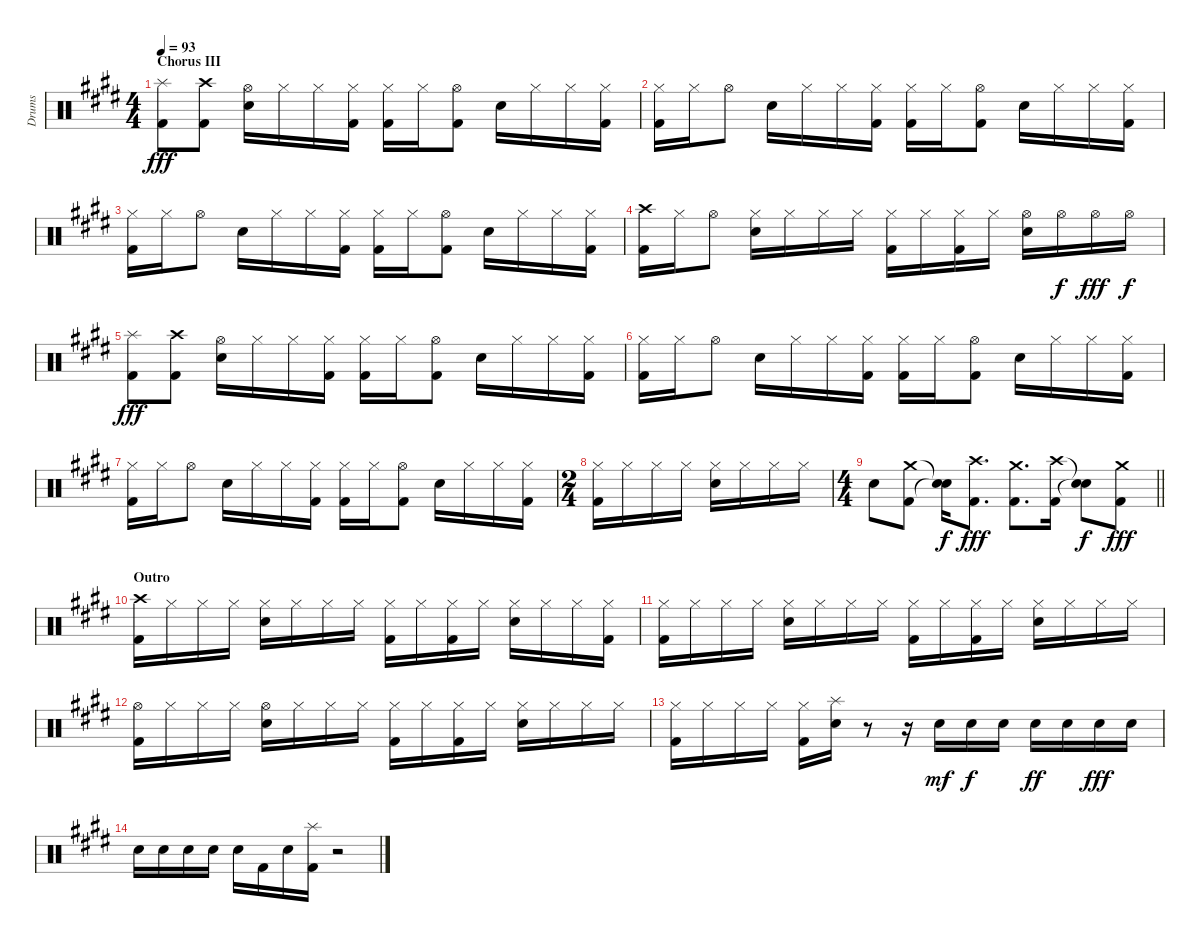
\track ("Drums" "Drums") {instrument percussion}
\staff {score}
\articulation defaults
\ts (4 4)
\section ("" "Chorus III")
\tempo 93
\clef neutral
\ks e
("Splash (hit)" "Kick (hit) 2").8{dy fff} ("Crash high (hit)" "Kick (hit) 2").8 ("Hi-Hat (open)" "Snare (hit) 2").16 "Hi-Hat (closed)".16 "Hi-Hat (closed)".16 ("Hi-Hat (closed)" "Kick (hit) 2").16 ("Hi-Hat (closed)" "Kick (hit) 2").16 "Hi-Hat (closed)".16 ("Hi-Hat (open)" "Kick (hit) 2").8 "Snare (hit) 2".16 "Hi-Hat (closed)".16 "Hi-Hat (closed)".16 ("Hi-Hat (closed)" "Kick (hit) 2").16 |
("Hi-Hat (closed)" "Kick (hit) 2").16 "Hi-Hat (closed)".16 "Hi-Hat (open)".8 "Snare (hit) 2".16 "Hi-Hat (closed)".16 "Hi-Hat (closed)".16 ("Hi-Hat (closed)" "Kick (hit) 2").16 ("Hi-Hat (closed)" "Kick (hit) 2").16 "Hi-Hat (closed)".16 ("Hi-Hat (open)" "Kick (hit) 2").8 "Snare (hit) 2".16 "Hi-Hat (closed)".16 "Hi-Hat (closed)".16 ("Hi-Hat (closed)" "Kick (hit) 2").16 |
("Hi-Hat (closed)" "Kick (hit) 2").16 "Hi-Hat (closed)".16 "Hi-Hat (open)".8 "Snare (hit) 2".16 "Hi-Hat (closed)".16 "Hi-Hat (closed)".16 ("Hi-Hat (closed)" "Kick (hit) 2").16 ("Hi-Hat (closed)" "Kick (hit) 2").16 "Hi-Hat (closed)".16 ("Hi-Hat (open)" "Kick (hit) 2").8 "Snare (hit) 2".16 "Hi-Hat (closed)".16 "Hi-Hat (closed)".16 ("Hi-Hat (closed)" "Kick (hit) 2").16 |
("Crash high (hit)" "Kick (hit) 2").16 "Hi-Hat (closed)".16 "Hi-Hat (open)".8 ("Hi-Hat (closed)" "Snare (hit) 2").16 "Hi-Hat (closed)".16 "Hi-Hat (closed)".16 "Hi-Hat (closed)".16 ("Hi-Hat (closed)" "Kick (hit) 2").16 "Hi-Hat (closed)".16 ("Hi-Hat (closed)" "Kick (hit) 2").16 "Hi-Hat (closed)".16 ("Hi-Hat (open)" "Snare (hit) 2").16 "Hi-Hat (open)".16{dy f} "Hi-Hat (open)".16{dy fff} "Hi-Hat (open)".16{dy f} |
("Splash (hit)" "Kick (hit) 2").8{dy fff} ("Crash high (hit)" "Kick (hit) 2").8 ("Hi-Hat (open)" "Snare (hit) 2").16 "Hi-Hat (closed)".16 "Hi-Hat (closed)".16 ("Hi-Hat (closed)" "Kick (hit) 2").16 ("Hi-Hat (closed)" "Kick (hit) 2").16 "Hi-Hat (closed)".16 ("Hi-Hat (open)" "Kick (hit) 2").8 "Snare (hit) 2".16 "Hi-Hat (closed)".16 "Hi-Hat (closed)".16 ("Hi-Hat (closed)" "Kick (hit) 2").16 |
("Hi-Hat (closed)" "Kick (hit) 2").16 "Hi-Hat (closed)".16 "Hi-Hat (open)".8 "Snare (hit) 2".16 "Hi-Hat (closed)".16 "Hi-Hat (closed)".16 ("Hi-Hat (closed)" "Kick (hit) 2").16 ("Hi-Hat (closed)" "Kick (hit) 2").16 "Hi-Hat (closed)".16 ("Hi-Hat (open)" "Kick (hit) 2").8 "Snare (hit) 2".16 "Hi-Hat (closed)".16 "Hi-Hat (closed)".16 ("Hi-Hat (closed)" "Kick (hit) 2").16 |
("Hi-Hat (closed)" "Kick (hit) 2").16 "Hi-Hat (closed)".16 "Hi-Hat (open)".8 "Snare (hit) 2".16 "Hi-Hat (closed)".16 "Hi-Hat (closed)".16 ("Hi-Hat (closed)" "Kick (hit) 2").16 ("Hi-Hat (closed)" "Kick (hit) 2").16 "Hi-Hat (closed)".16 ("Hi-Hat (open)" "Kick (hit) 2").8 "Snare (hit) 2".16 "Hi-Hat (closed)".16 "Hi-Hat (closed)".16 ("Hi-Hat (closed)" "Kick (hit) 2").16 |
\ts (2 4)
("Hi-Hat (closed)" "Kick (hit) 2").16 "Hi-Hat (closed)".16 "Hi-Hat (closed)".16 "Hi-Hat (closed)".16 ("Hi-Hat (closed)" "Snare (hit) 2").16 "Hi-Hat (closed)".16 "Hi-Hat (closed)".16 "Hi-Hat (closed)".16 |
\ts (4 4)
\barLineRight lightlight "Snare (hit) 2".8
("Crash medium (hit)" "Kick (hit) 2").8 ("Snare (hit)"{t} "Snare (hit)"{t}).16{dy f} ("Crash high (hit)" "Kick (hit) 2").8{d dy fff} ("Crash medium (hit)" "Kick (hit) 2").8{d} ("Crash high (hit)" "Kick (hit) 2").16 ("Snare (hit)"{t} "Snare (hit)"{t}).8{dy f} ("Crash medium (hit)" "Kick (hit) 2").8{dy fff} |
\section ("" "Outro")
("Crash high (hit)" "Kick (hit) 2").16 "Hi-Hat (closed)".16 "Hi-Hat (closed)".16 "Hi-Hat (closed)".16 ("Hi-Hat (closed)" "Snare (hit) 2").16 "Hi-Hat (closed)".16 "Hi-Hat (closed)".16 "Hi-Hat (closed)".16 ("Hi-Hat (closed)" "Kick (hit) 2").16 "Hi-Hat (closed)".16 ("Hi-Hat (closed)" "Kick (hit) 2").16 "Hi-Hat (closed)".16 ("Hi-Hat (closed)" "Snare (hit) 2").16 "Hi-Hat (closed)".16 "Hi-Hat (closed)".16 ("Hi-Hat (closed)" "Kick (hit) 2").16 |
("Hi-Hat (closed)" "Kick (hit) 2").16 "Hi-Hat (closed)".16 "Hi-Hat (closed)".16 "Hi-Hat (closed)".16 ("Hi-Hat (closed)" "Snare (hit) 2").16 "Hi-Hat (closed)".16 "Hi-Hat (closed)".16 "Hi-Hat (closed)".16 ("Hi-Hat (closed)" "Kick (hit) 2").16 "Hi-Hat (closed)".16 ("Hi-Hat (closed)" "Kick (hit) 2").16 "Hi-Hat (closed)".16 ("Hi-Hat (closed)" "Snare (hit) 2").16 "Hi-Hat (closed)".16 "Hi-Hat (closed)".16 "Hi-Hat (closed)".16 |
("Hi-Hat (open)" "Kick (hit) 2").16 "Hi-Hat (closed)".16 "Hi-Hat (closed)".16 "Hi-Hat (closed)".16 ("Hi-Hat (open)" "Snare (hit) 2").16 "Hi-Hat (closed)".16 "Hi-Hat (closed)".16 "Hi-Hat (closed)".16 ("Hi-Hat (closed)" "Kick (hit) 2").16 "Hi-Hat (closed)".16 ("Hi-Hat (closed)" "Kick (hit) 2").16 "Hi-Hat (closed)".16 ("Hi-Hat (closed)" "Snare (hit) 2").16 "Hi-Hat (closed)".16 "Hi-Hat (closed)".16 "Hi-Hat (closed)".16 |
("Hi-Hat (closed)" "Kick (hit) 2").16 "Hi-Hat (closed)".16 "Hi-Hat (closed)".16 "Hi-Hat (closed)".16 ("Hi-Hat (closed)" "Kick (hit) 2").16 ("Splash (hit)" "Snare (hit) 2").16 r.8 r.16 "Snare (hit) 2".16{dy mf} "Snare (hit) 2".16{dy f} "Snare (hit) 2".16 "Snare (hit) 2".16{dy ff} "Snare (hit) 2".16 "Snare (hit) 2".16{dy fff} "Snare (hit) 2".16 |
"Snare (hit) 2".16 "Snare (hit) 2".16 "Snare (hit) 2".16 "Snare (hit) 2".16 "Snare (hit) 2".16 "Kick (hit) 2".16 "Snare (hit) 2".16 ("Splash (hit)" "Kick (hit) 2").16 r.2
